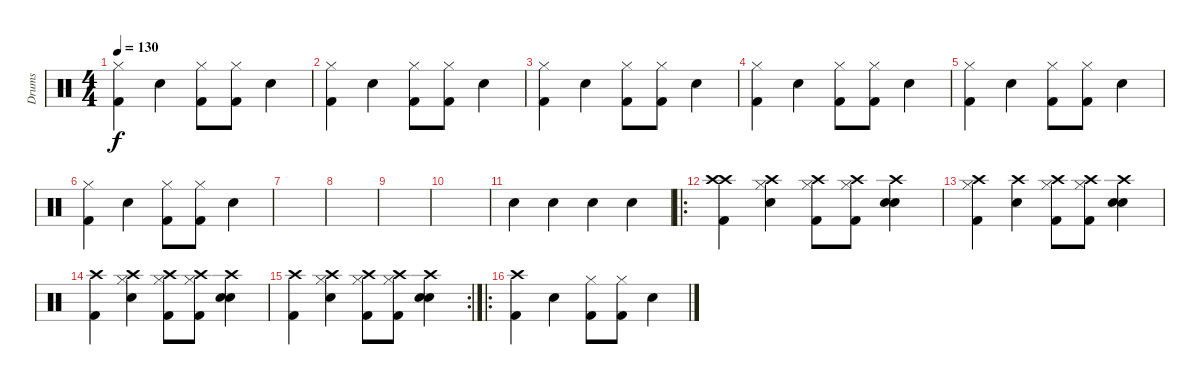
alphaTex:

\track ("Drums" "Drums") {instrument percussion}
\staff {score}
\articulation defaults
\ts (4 4)
\tempo 130
\clef neutral
\ks c
("Hi-Hat (closed)" "Kick (hit) 2").4{dy f} "Electric Snare (hit)".4 ("Kick (hit) 2" "Hi-Hat (closed)").8 ("Kick (hit) 2" "Hi-Hat (closed)").8 "Electric Snare (hit)".4 |
("Hi-Hat (closed)" "Kick (hit) 2").4 "Electric Snare (hit)".4 ("Kick (hit) 2" "Hi-Hat (closed)").8 ("Kick (hit) 2" "Hi-Hat (closed)").8 "Electric Snare (hit)".4 |
("Hi-Hat (closed)" "Kick (hit) 2").4 "Electric Snare (hit)".4 ("Kick (hit) 2" "Hi-Hat (closed)").8 ("Kick (hit) 2" "Hi-Hat (closed)").8 "Electric Snare (hit)".4 |
("Hi-Hat (closed)" "Kick (hit) 2").4 "Electric Snare (hit)".4 ("Kick (hit) 2" "Hi-Hat (closed)").8 ("Kick (hit) 2" "Hi-Hat (closed)").8 "Electric Snare (hit)".4 |
("Hi-Hat (closed)" "Kick (hit) 2").4 "Electric Snare (hit)".4 ("Kick (hit) 2" "Hi-Hat (closed)").8 ("Kick (hit) 2" "Hi-Hat (closed)").8 "Electric Snare (hit)".4 |
("Hi-Hat (closed)" "Kick (hit) 2").4 "Electric Snare (hit)".4 ("Kick (hit) 2" "Hi-Hat (closed)").8 ("Kick (hit) 2" "Hi-Hat (closed)").8 "Electric Snare (hit)".4 |
|
|
|
|
"Snare (hit) 2".4 "Snare (hit) 2".4 "Snare (hit) 2".4 "Snare (hit) 2".4 |
\ro
("Crash high (hit)" "Crash high (hit)" "Kick (hit) 2").4 ("Electric Snare (hit)" "Hi-Hat (closed)" "Crash high (hit)").4 ("Kick (hit) 2" "Hi-Hat (closed)" "Crash high (hit)").8 ("Kick (hit) 2" "Hi-Hat (closed)" "Crash high (hit)").8 ("Electric Snare (hit)" "Crash high (hit)" "Electric Snare (hit)").4 |
("Hi-Hat (closed)" "Crash high (hit)" "Kick (hit) 2").4 ("Electric Snare (hit)" "Crash high (hit)").4 ("Kick (hit) 2" "Hi-Hat (closed)" "Crash high (hit)").8 ("Kick (hit) 2" "Hi-Hat (closed)" "Crash high (hit)").8 ("Electric Snare (hit)" "Crash high (hit)" "Electric Snare (hit)").4 |
("Crash high (hit)" "Kick (hit) 2").4 ("Electric Snare (hit)" "Hi-Hat (closed)" "Crash high (hit)").4 ("Kick (hit) 2" "Hi-Hat (closed)" "Crash high (hit)").8 ("Kick (hit) 2" "Hi-Hat (closed)" "Crash high (hit)").8 ("Electric Snare (hit)" "Crash high (hit)" "Electric Snare (hit)").4 |
\rc 2
("Crash high (hit)" "Kick (hit) 2").4 ("Electric Snare (hit)" "Hi-Hat (closed)" "Crash high (hit)").4 ("Kick (hit) 2" "Hi-Hat (closed)" "Crash high (hit)").8 ("Kick (hit) 2" "Hi-Hat (closed)" "Crash high (hit)").8 ("Electric Snare (hit)" "Crash high (hit)" "Electric Snare (hit)").4 |
\ro
("Crash high (hit)" "Kick (hit) 2").4 "Electric Snare (hit)".4 ("Kick (hit) 2" "Hi-Hat (closed)").8 ("Kick (hit) 2" "Hi-Hat (closed)").8 "Electric Snare (hit)".4
